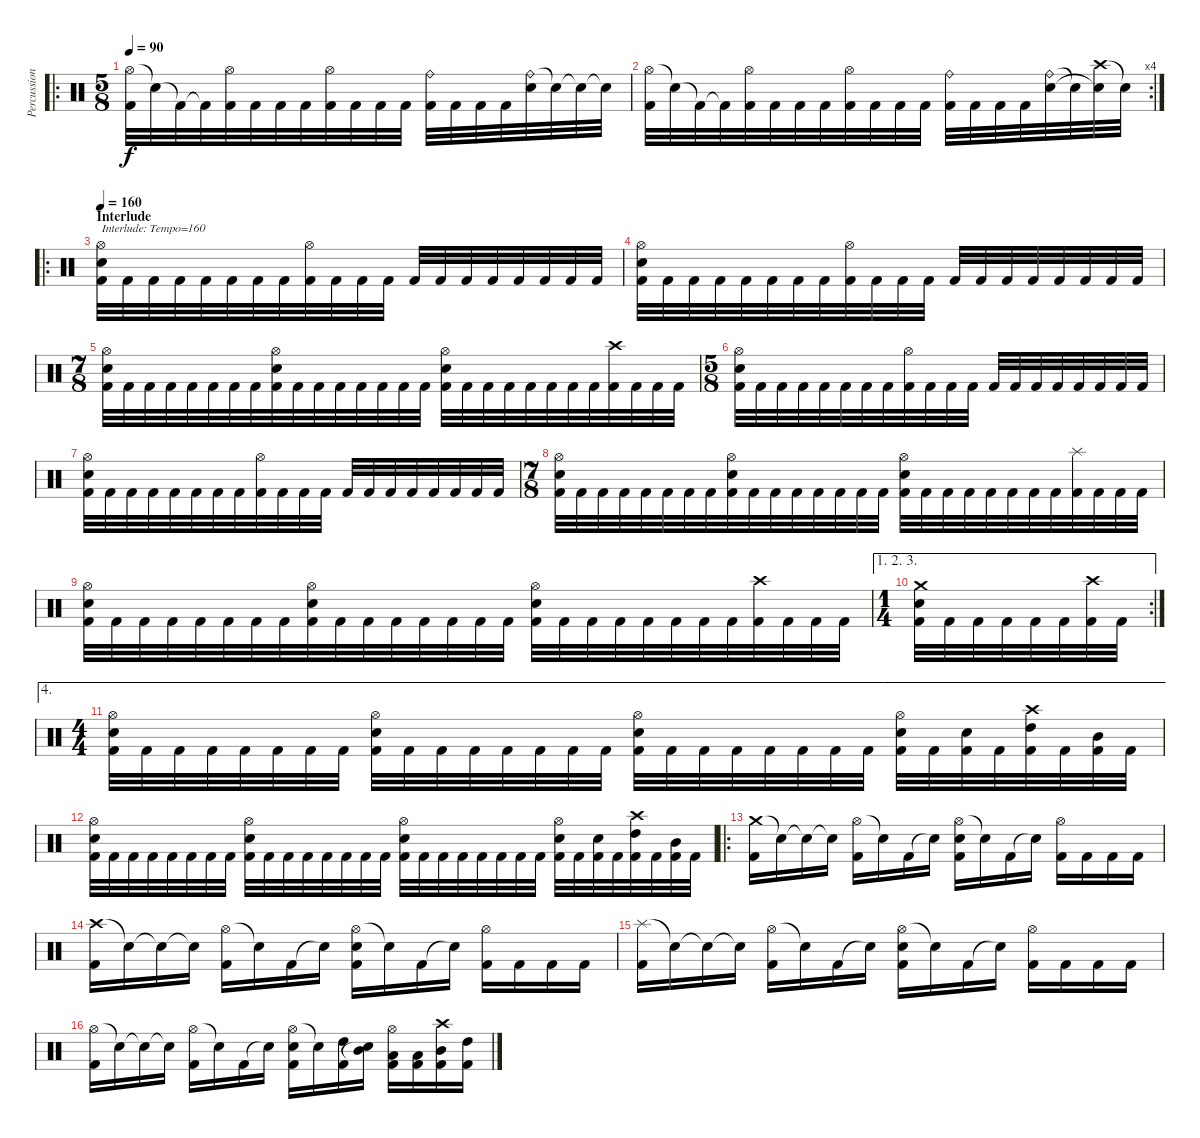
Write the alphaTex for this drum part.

\track ("Percussion [Patrick Robert]" "Percussion") {instrument percussion}
\staff {score}
\articulation defaults
\ro
\ts (5 8)
\tempo 90
\clef neutral
\ks c
("Hi-Hat (open)" "Kick (hit) 2").32{dy f} "Snare (hit)"{t}.32 "Kick (hit) 2"{t}.32 "Kick (hit) 2"{t}.32 ("Hi-Hat (open)" "Kick (hit) 2").32 "Kick (hit) 2".32 "Kick (hit) 2".32 "Kick (hit) 2".32 ("Hi-Hat (open)" "Kick (hit) 2").32 "Kick (hit) 2".32 "Kick (hit) 2".32 "Kick (hit) 2".32 ("Ride (bell)" "Kick (hit) 2").32 "Kick (hit) 2".32 "Kick (hit) 2".32 "Kick (hit) 2".32 ("Ride (bell)" "Electric Snare (hit)").32 "Snare (hit)"{t}.32 "Snare (hit)"{t}.32 "Snare (hit)"{t}.32 |
\rc 4
("Hi-Hat (open)" "Kick (hit) 2").32 "Snare (hit)"{t}.32 "Kick (hit) 2"{t}.32 "Kick (hit) 2"{t}.32 ("Hi-Hat (open)" "Kick (hit) 2").32 "Kick (hit) 2".32 "Kick (hit) 2".32 "Kick (hit) 2".32 ("Hi-Hat (open)" "Kick (hit) 2").32 "Kick (hit) 2".32 "Kick (hit) 2".32 "Kick (hit) 2".32 ("Ride (bell)" "Kick (hit) 2").32 "Kick (hit) 2".32 "Kick (hit) 2".32 "Kick (hit) 2".32 ("Ride (bell)" "Electric Snare (hit)").32 "Snare (hit)"{t}.32 ("Crash high (hit)" "Snare (hit)"{t}).32 "Snare (hit)"{t}.32 |
\ro
\section ("" "Interlude")
\tempo 160
("Hi-Hat (open)" "Electric Snare (hit)" "Kick (hit) 2").32{txt "Interlude: Tempo=160"} "Kick (hit) 2".32 "Kick (hit) 2".32 "Kick (hit) 2".32 "Kick (hit) 2".32 "Kick (hit) 2".32 "Kick (hit) 2".32 "Kick (hit) 2".32 ("Hi-Hat (open)" "Kick (hit) 2").32 "Kick (hit) 2".32 "Kick (hit) 2".32 "Kick (hit) 2".32 "Kick (hit) 2".32 "Kick (hit) 2".32 "Kick (hit) 2".32 "Kick (hit) 2".32 "Kick (hit) 2".32 "Kick (hit) 2".32 "Kick (hit) 2".32 "Kick (hit) 2".32 |
("Hi-Hat (open)" "Electric Snare (hit)" "Kick (hit) 2").32 "Kick (hit) 2".32 "Kick (hit) 2".32 "Kick (hit) 2".32 "Kick (hit) 2".32 "Kick (hit) 2".32 "Kick (hit) 2".32 "Kick (hit) 2".32 ("Hi-Hat (open)" "Kick (hit) 2").32 "Kick (hit) 2".32 "Kick (hit) 2".32 "Kick (hit) 2".32 "Kick (hit) 2".32 "Kick (hit) 2".32 "Kick (hit) 2".32 "Kick (hit) 2".32 "Kick (hit) 2".32 "Kick (hit) 2".32 "Kick (hit) 2".32 "Kick (hit) 2".32 |
\ts (7 8)
("Hi-Hat (open)" "Electric Snare (hit)" "Kick (hit) 2").32 "Kick (hit) 2".32 "Kick (hit) 2".32 "Kick (hit) 2".32 "Kick (hit) 2".32 "Kick (hit) 2".32 "Kick (hit) 2".32 "Kick (hit) 2".32 ("Hi-Hat (open)" "Electric Snare (hit)" "Kick (hit) 2").32 "Kick (hit) 2".32 "Kick (hit) 2".32 "Kick (hit) 2".32 "Kick (hit) 2".32 "Kick (hit) 2".32 "Kick (hit) 2".32 "Kick (hit) 2".32 ("Hi-Hat (open)" "Electric Snare (hit)" "Kick (hit) 2").32 "Kick (hit) 2".32 "Kick (hit) 2".32 "Kick (hit) 2".32 "Kick (hit) 2".32 "Kick (hit) 2".32 "Kick (hit) 2".32 "Kick (hit) 2".32 ("Crash high (hit)" "Kick (hit) 2").32 "Kick (hit) 2".32 "Kick (hit) 2".32 "Kick (hit) 2".32 |
\ts (5 8)
("Hi-Hat (open)" "Electric Snare (hit)" "Kick (hit) 2").32 "Kick (hit) 2".32 "Kick (hit) 2".32 "Kick (hit) 2".32 "Kick (hit) 2".32 "Kick (hit) 2".32 "Kick (hit) 2".32 "Kick (hit) 2".32 ("Hi-Hat (open)" "Kick (hit) 2").32 "Kick (hit) 2".32 "Kick (hit) 2".32 "Kick (hit) 2".32 "Kick (hit) 2".32 "Kick (hit) 2".32 "Kick (hit) 2".32 "Kick (hit) 2".32 "Kick (hit) 2".32 "Kick (hit) 2".32 "Kick (hit) 2".32 "Kick (hit) 2".32 |
("Hi-Hat (open)" "Electric Snare (hit)" "Kick (hit) 2").32 "Kick (hit) 2".32 "Kick (hit) 2".32 "Kick (hit) 2".32 "Kick (hit) 2".32 "Kick (hit) 2".32 "Kick (hit) 2".32 "Kick (hit) 2".32 ("Hi-Hat (open)" "Kick (hit) 2").32 "Kick (hit) 2".32 "Kick (hit) 2".32 "Kick (hit) 2".32 "Kick (hit) 2".32 "Kick (hit) 2".32 "Kick (hit) 2".32 "Kick (hit) 2".32 "Kick (hit) 2".32 "Kick (hit) 2".32 "Kick (hit) 2".32 "Kick (hit) 2".32 |
\ts (7 8)
("Hi-Hat (open)" "Electric Snare (hit)" "Kick (hit) 2").32 "Kick (hit) 2".32 "Kick (hit) 2".32 "Kick (hit) 2".32 "Kick (hit) 2".32 "Kick (hit) 2".32 "Kick (hit) 2".32 "Kick (hit) 2".32 ("Hi-Hat (open)" "Electric Snare (hit)" "Kick (hit) 2").32 "Kick (hit) 2".32 "Kick (hit) 2".32 "Kick (hit) 2".32 "Kick (hit) 2".32 "Kick (hit) 2".32 "Kick (hit) 2".32 "Kick (hit) 2".32 ("Hi-Hat (open)" "Electric Snare (hit)" "Kick (hit) 2").32 "Kick (hit) 2".32 "Kick (hit) 2".32 "Kick (hit) 2".32 "Kick (hit) 2".32 "Kick (hit) 2".32 "Kick (hit) 2".32 "Kick (hit) 2".32 ("Splash (hit)" "Kick (hit) 2").32 "Kick (hit) 2".32 "Kick (hit) 2".32 "Kick (hit) 2".32 |
("Hi-Hat (open)" "Electric Snare (hit)" "Kick (hit) 2").32 "Kick (hit) 2".32 "Kick (hit) 2".32 "Kick (hit) 2".32 "Kick (hit) 2".32 "Kick (hit) 2".32 "Kick (hit) 2".32 "Kick (hit) 2".32 ("Hi-Hat (open)" "Electric Snare (hit)" "Kick (hit) 2").32 "Kick (hit) 2".32 "Kick (hit) 2".32 "Kick (hit) 2".32 "Kick (hit) 2".32 "Kick (hit) 2".32 "Kick (hit) 2".32 "Kick (hit) 2".32 ("Hi-Hat (open)" "Electric Snare (hit)" "Kick (hit) 2").32 "Kick (hit) 2".32 "Kick (hit) 2".32 "Kick (hit) 2".32 "Kick (hit) 2".32 "Kick (hit) 2".32 "Kick (hit) 2".32 "Kick (hit) 2".32 ("Crash high (hit)" "Kick (hit) 2").32 "Kick (hit) 2".32 "Kick (hit) 2".32 "Kick (hit) 2".32 |
\ae (1 2 3)
\rc 2
\ts (1 4)
("Crash medium (hit)" "Electric Snare (hit)" "Kick (hit) 2").32 "Kick (hit) 2".32 "Kick (hit) 2".32 "Kick (hit) 2".32 "Kick (hit) 2".32 "Kick (hit) 2".32 ("Crash high (hit)" "Kick (hit) 2").32 "Kick (hit) 2".32 |
\ae 4
\ts (4 4)
("Hi-Hat (open)" "Electric Snare (hit)" "Kick (hit) 2").32 "Kick (hit) 2".32 "Kick (hit) 2".32 "Kick (hit) 2".32 "Kick (hit) 2".32 "Kick (hit) 2".32 "Kick (hit) 2".32 "Kick (hit) 2".32 ("Hi-Hat (open)" "Electric Snare (hit)" "Kick (hit) 2").32 "Kick (hit) 2".32 "Kick (hit) 2".32 "Kick (hit) 2".32 "Kick (hit) 2".32 "Kick (hit) 2".32 "Kick (hit) 2".32 "Kick (hit) 2".32 ("Hi-Hat (open)" "Electric Snare (hit)" "Kick (hit) 2").32 "Kick (hit) 2".32 "Kick (hit) 2".32 "Kick (hit) 2".32 "Kick (hit) 2".32 "Kick (hit) 2".32 "Kick (hit) 2".32 "Kick (hit) 2".32 ("Hi-Hat (open)" "Electric Snare (hit)" "Kick (hit) 2").32 "Kick (hit) 2".32 ("Electric Snare (hit)" "Kick (hit) 2").32 "Kick (hit) 2".32 ("Crash high (hit)" "High Tom (hit)" "Kick (hit) 2").32 "Kick (hit) 2".32 ("Mid Tom (hit)" "Kick (hit) 2").32 "Kick (hit) 2".32 |
("Hi-Hat (open)" "Electric Snare (hit)" "Kick (hit) 2").32 "Kick (hit) 2".32 "Kick (hit) 2".32 "Kick (hit) 2".32 "Kick (hit) 2".32 "Kick (hit) 2".32 "Kick (hit) 2".32 "Kick (hit) 2".32 ("Hi-Hat (open)" "Electric Snare (hit)" "Kick (hit) 2").32 "Kick (hit) 2".32 "Kick (hit) 2".32 "Kick (hit) 2".32 "Kick (hit) 2".32 "Kick (hit) 2".32 "Kick (hit) 2".32 "Kick (hit) 2".32 ("Hi-Hat (open)" "Electric Snare (hit)" "Kick (hit) 2").32 "Kick (hit) 2".32 "Kick (hit) 2".32 "Kick (hit) 2".32 "Kick (hit) 2".32 "Kick (hit) 2".32 "Kick (hit) 2".32 "Kick (hit) 2".32 ("Hi-Hat (open)" "Electric Snare (hit)" "Kick (hit) 2").32 "Kick (hit) 2".32 ("Electric Snare (hit)" "Kick (hit) 2").32 "Kick (hit) 2".32 ("Crash high (hit)" "High Tom (hit)" "Kick (hit) 2").32 "Kick (hit) 2".32 ("Mid Tom (hit)" "Kick (hit) 2").32 "Kick (hit) 2".32 |
\ro
("Crash medium (hit)" "Kick (hit) 2").16 "Snare (hit)"{t}.16 "Snare (hit)"{t}.16 "Snare (hit)"{t}.16 ("Hi-Hat (open)" "Kick (hit) 2").16 "Snare (hit)"{t}.16 "Kick (hit) 2".16 "Snare (hit)"{t}.16 ("Hi-Hat (open)" "Electric Snare (hit)" "Kick (hit) 2").16 "Snare (hit)"{t}.16 "Kick (hit) 2".16 "Snare (hit)"{t}.16 ("Hi-Hat (open)" "Kick (hit) 2").16 "Kick (hit) 2".16 "Kick (hit) 2".16 "Kick (hit) 2".16 |
("Crash high (hit)" "Kick (hit) 2").16 "Snare (hit)"{t}.16 "Snare (hit)"{t}.16 "Snare (hit)"{t}.16 ("Hi-Hat (open)" "Kick (hit) 2").16 "Snare (hit)"{t}.16 "Kick (hit) 2".16 "Snare (hit)"{t}.16 ("Hi-Hat (open)" "Electric Snare (hit)" "Kick (hit) 2").16 "Snare (hit)"{t}.16 "Kick (hit) 2".16 "Snare (hit)"{t}.16 ("Hi-Hat (open)" "Kick (hit) 2").16 "Kick (hit) 2".16 "Kick (hit) 2".16 "Kick (hit) 2".16 |
("Splash (hit)" "Kick (hit) 2").16 "Snare (hit)"{t}.16 "Snare (hit)"{t}.16 "Snare (hit)"{t}.16 ("Hi-Hat (open)" "Kick (hit) 2").16 "Snare (hit)"{t}.16 "Kick (hit) 2".16 "Snare (hit)"{t}.16 ("Hi-Hat (open)" "Electric Snare (hit)" "Kick (hit) 2").16 "Snare (hit)"{t}.16 "Kick (hit) 2".16 "Snare (hit)"{t}.16 ("Hi-Hat (open)" "Kick (hit) 2").16 "Kick (hit) 2".16 "Kick (hit) 2".16 "Kick (hit) 2".16 |
("Hi-Hat (open)" "Kick (hit) 2").16 "Snare (hit)"{t}.16 "Snare (hit)"{t}.16 "Snare (hit)"{t}.16 ("Hi-Hat (open)" "Kick (hit) 2").16 "Snare (hit)"{t}.16 "Kick (hit) 2".16 "Snare (hit)"{t}.16 ("Hi-Hat (open)" "Electric Snare (hit)" "Kick (hit) 2").16 "Snare (hit)"{t}.16 ("High Tom (hit)" "Kick (hit) 2").16 ("Mid Tom (hit)" "Snare (hit)"{t}).16 ("Hi-Hat (open)" "Low Tom (hit)" "Kick (hit) 2").16 ("Low Tom (hit)" "Kick (hit) 2").16 ("Crash high (hit)" "Mid Tom (hit)" "Kick (hit) 2").16 ("High Tom (hit)" "Kick (hit) 2").16
